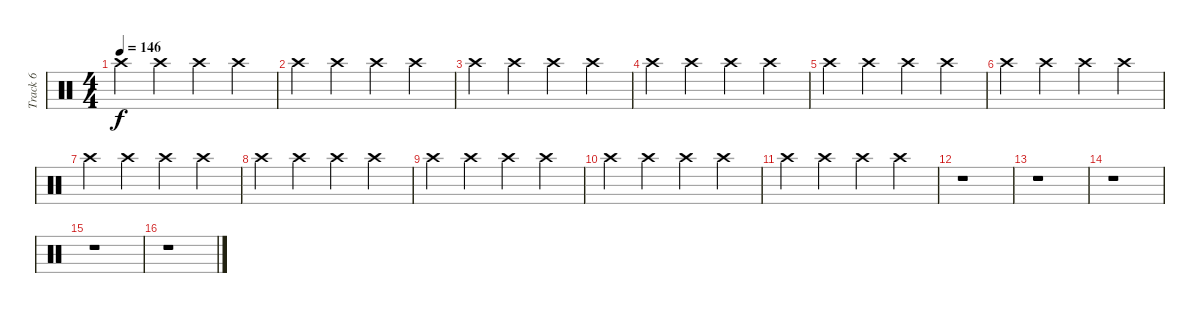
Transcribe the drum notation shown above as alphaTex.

\track ("Track 6" "Track 6") {instrument percussion}
\staff {score}
\articulation defaults
\ts (4 4)
\tempo 146
\clef neutral
\ks c "Crash high (hit)".4{dy f} "Crash high (hit)".4 "Crash high (hit)".4 "Crash high (hit)".4
|
"Crash high (hit)".4 "Crash high (hit)".4 "Crash high (hit)".4 "Crash high (hit)".4 |
"Crash high (hit)".4 "Crash high (hit)".4 "Crash high (hit)".4 "Crash high (hit)".4 |
"Crash high (hit)".4 "Crash high (hit)".4 "Crash high (hit)".4 "Crash high (hit)".4 |
"Crash high (hit)".4 "Crash high (hit)".4 "Crash high (hit)".4 "Crash high (hit)".4 |
"Crash high (hit)".4 "Crash high (hit)".4 "Crash high (hit)".4 "Crash high (hit)".4 |
"Crash high (hit)".4 "Crash high (hit)".4 "Crash high (hit)".4 "Crash high (hit)".4 |
"Crash high (hit)".4 "Crash high (hit)".4 "Crash high (hit)".4 "Crash high (hit)".4 |
"Crash high (hit)".4 "Crash high (hit)".4 "Crash high (hit)".4 "Crash high (hit)".4 |
"Crash high (hit)".4 "Crash high (hit)".4 "Crash high (hit)".4 "Crash high (hit)".4 |
"Crash high (hit)".4 "Crash high (hit)".4 "Crash high (hit)".4 "Crash high (hit)".4 |
r.1 |
r.1 |
r.1 |
r.1 |
r.1
